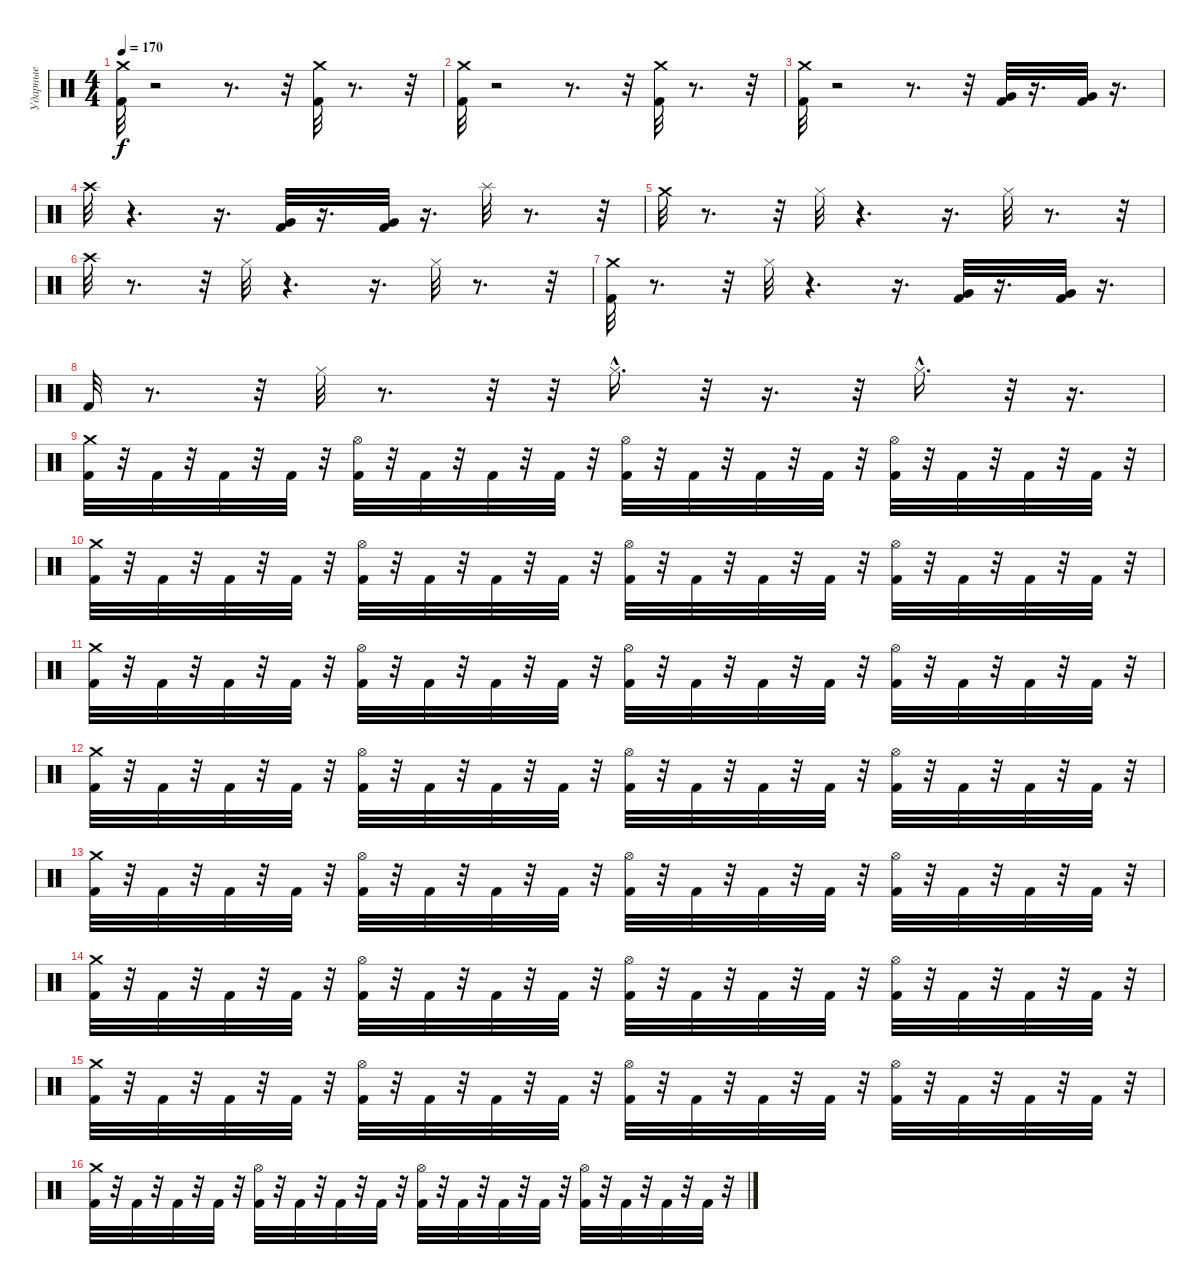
\track ("Ударные" "Ударные") {instrument percussion}
\staff {score}
\articulation defaults
\ts (4 4)
\tempo 170
\clef neutral
\ks c
("Kick (hit) 2" "Crash medium (hit)").32{dy f} r.2 r.8{d} r.32 ("Kick (hit) 2" "Crash medium (hit)").32 r.8{d} r.32 |
("Kick (hit) 2" "Crash medium (hit)").32 r.2 r.8{d} r.32 ("Kick (hit) 2" "Crash medium (hit)").32 r.8{d} r.32 |
("Kick (hit) 2" "Crash medium (hit)").32 r.2 r.8{d} r.32 ("Kick (hit) 2" "Very Low Tom (hit)").32 r.16{d} ("Kick (hit) 2" "Very Low Tom (hit)").32 r.16{d} |
"Crash high (hit)".32 r.4{d} r.16{d} ("Kick (hit) 2" "Very Low Tom (hit)").32 r.16{d} ("Kick (hit) 2" "Very Low Tom (hit)").32 r.16{d} "Splash (hit)".32 r.8{d} r.32 |
"Crash medium (hit)".32 r.8{d} r.32 "Hi-Hat (closed)".32 r.4{d} r.16{d} "Hi-Hat (closed)".32 r.8{d} r.32 |
"Crash high (hit)".32 r.8{d} r.32 "Hi-Hat (closed)".32 r.4{d} r.16{d} "Hi-Hat (closed)".32 r.8{d} r.32 |
("Kick (hit) 2" "Crash medium (hit)").32 r.8{d} r.32 "Hi-Hat (closed)".32 r.4{d} r.16{d} ("Kick (hit) 2" "Very Low Tom (hit)").32 r.16{d} ("Kick (hit) 2" "Very Low Tom (hit)").32 r.16{d} |
"Kick (hit) 2".32 r.8{d} r.32 "Hi-Hat (closed)".32 r.8{d} r.32 r.32 "Hi-Hat (closed)"{hac}.16{d} r.32 r.16{d} r.32 "Hi-Hat (closed)"{hac}.16{d} r.32 r.16{d} |
("Crash medium (hit)" "Kick (hit) 2").32 r.32 "Kick (hit) 2".32 r.32 "Kick (hit) 2".32 r.32 "Kick (hit) 2".32 r.32 ("Hi-Hat (open)" "Kick (hit) 2").32 r.32 "Kick (hit) 2".32 r.32 "Kick (hit) 2".32 r.32 "Kick (hit) 2".32 r.32 ("Hi-Hat (open)" "Kick (hit) 2").32 r.32 "Kick (hit) 2".32 r.32 "Kick (hit) 2".32 r.32 "Kick (hit) 2".32 r.32 ("Hi-Hat (open)" "Kick (hit) 2").32 r.32 "Kick (hit) 2".32 r.32 "Kick (hit) 2".32 r.32 "Kick (hit) 2".32 r.32 |
("Crash medium (hit)" "Kick (hit) 2").32 r.32 "Kick (hit) 2".32 r.32 "Kick (hit) 2".32 r.32 "Kick (hit) 2".32 r.32 ("Hi-Hat (open)" "Kick (hit) 2").32 r.32 "Kick (hit) 2".32 r.32 "Kick (hit) 2".32 r.32 "Kick (hit) 2".32 r.32 ("Hi-Hat (open)" "Kick (hit) 2").32 r.32 "Kick (hit) 2".32 r.32 "Kick (hit) 2".32 r.32 "Kick (hit) 2".32 r.32 ("Hi-Hat (open)" "Kick (hit) 2").32 r.32 "Kick (hit) 2".32 r.32 "Kick (hit) 2".32 r.32 "Kick (hit) 2".32 r.32 |
("Crash medium (hit)" "Kick (hit) 2").32 r.32 "Kick (hit) 2".32 r.32 "Kick (hit) 2".32 r.32 "Kick (hit) 2".32 r.32 ("Hi-Hat (open)" "Kick (hit) 2").32 r.32 "Kick (hit) 2".32 r.32 "Kick (hit) 2".32 r.32 "Kick (hit) 2".32 r.32 ("Hi-Hat (open)" "Kick (hit) 2").32 r.32 "Kick (hit) 2".32 r.32 "Kick (hit) 2".32 r.32 "Kick (hit) 2".32 r.32 ("Hi-Hat (open)" "Kick (hit) 2").32 r.32 "Kick (hit) 2".32 r.32 "Kick (hit) 2".32 r.32 "Kick (hit) 2".32 r.32 |
("Crash medium (hit)" "Kick (hit) 2").32 r.32 "Kick (hit) 2".32 r.32 "Kick (hit) 2".32 r.32 "Kick (hit) 2".32 r.32 ("Hi-Hat (open)" "Kick (hit) 2").32 r.32 "Kick (hit) 2".32 r.32 "Kick (hit) 2".32 r.32 "Kick (hit) 2".32 r.32 ("Hi-Hat (open)" "Kick (hit) 2").32 r.32 "Kick (hit) 2".32 r.32 "Kick (hit) 2".32 r.32 "Kick (hit) 2".32 r.32 ("Hi-Hat (open)" "Kick (hit) 2").32 r.32 "Kick (hit) 2".32 r.32 "Kick (hit) 2".32 r.32 "Kick (hit) 2".32 r.32 |
("Crash medium (hit)" "Kick (hit) 2").32 r.32 "Kick (hit) 2".32 r.32 "Kick (hit) 2".32 r.32 "Kick (hit) 2".32 r.32 ("Hi-Hat (open)" "Kick (hit) 2").32 r.32 "Kick (hit) 2".32 r.32 "Kick (hit) 2".32 r.32 "Kick (hit) 2".32 r.32 ("Hi-Hat (open)" "Kick (hit) 2").32 r.32 "Kick (hit) 2".32 r.32 "Kick (hit) 2".32 r.32 "Kick (hit) 2".32 r.32 ("Hi-Hat (open)" "Kick (hit) 2").32 r.32 "Kick (hit) 2".32 r.32 "Kick (hit) 2".32 r.32 "Kick (hit) 2".32 r.32 |
("Crash medium (hit)" "Kick (hit) 2").32 r.32 "Kick (hit) 2".32 r.32 "Kick (hit) 2".32 r.32 "Kick (hit) 2".32 r.32 ("Hi-Hat (open)" "Kick (hit) 2").32 r.32 "Kick (hit) 2".32 r.32 "Kick (hit) 2".32 r.32 "Kick (hit) 2".32 r.32 ("Hi-Hat (open)" "Kick (hit) 2").32 r.32 "Kick (hit) 2".32 r.32 "Kick (hit) 2".32 r.32 "Kick (hit) 2".32 r.32 ("Hi-Hat (open)" "Kick (hit) 2").32 r.32 "Kick (hit) 2".32 r.32 "Kick (hit) 2".32 r.32 "Kick (hit) 2".32 r.32 |
("Crash medium (hit)" "Kick (hit) 2").32 r.32 "Kick (hit) 2".32 r.32 "Kick (hit) 2".32 r.32 "Kick (hit) 2".32 r.32 ("Hi-Hat (open)" "Kick (hit) 2").32 r.32 "Kick (hit) 2".32 r.32 "Kick (hit) 2".32 r.32 "Kick (hit) 2".32 r.32 ("Hi-Hat (open)" "Kick (hit) 2").32 r.32 "Kick (hit) 2".32 r.32 "Kick (hit) 2".32 r.32 "Kick (hit) 2".32 r.32 ("Hi-Hat (open)" "Kick (hit) 2").32 r.32 "Kick (hit) 2".32 r.32 "Kick (hit) 2".32 r.32 "Kick (hit) 2".32 r.32 |
("Crash medium (hit)" "Kick (hit) 2").32 r.32 "Kick (hit) 2".32 r.32 "Kick (hit) 2".32 r.32 "Kick (hit) 2".32 r.32 ("Hi-Hat (open)" "Kick (hit) 2").32 r.32 "Kick (hit) 2".32 r.32 "Kick (hit) 2".32 r.32 "Kick (hit) 2".32 r.32 ("Hi-Hat (open)" "Kick (hit) 2").32 r.32 "Kick (hit) 2".32 r.32 "Kick (hit) 2".32 r.32 "Kick (hit) 2".32 r.32 ("Hi-Hat (open)" "Kick (hit) 2").32 r.32 "Kick (hit) 2".32 r.32 "Kick (hit) 2".32 r.32 "Kick (hit) 2".32 r.32
